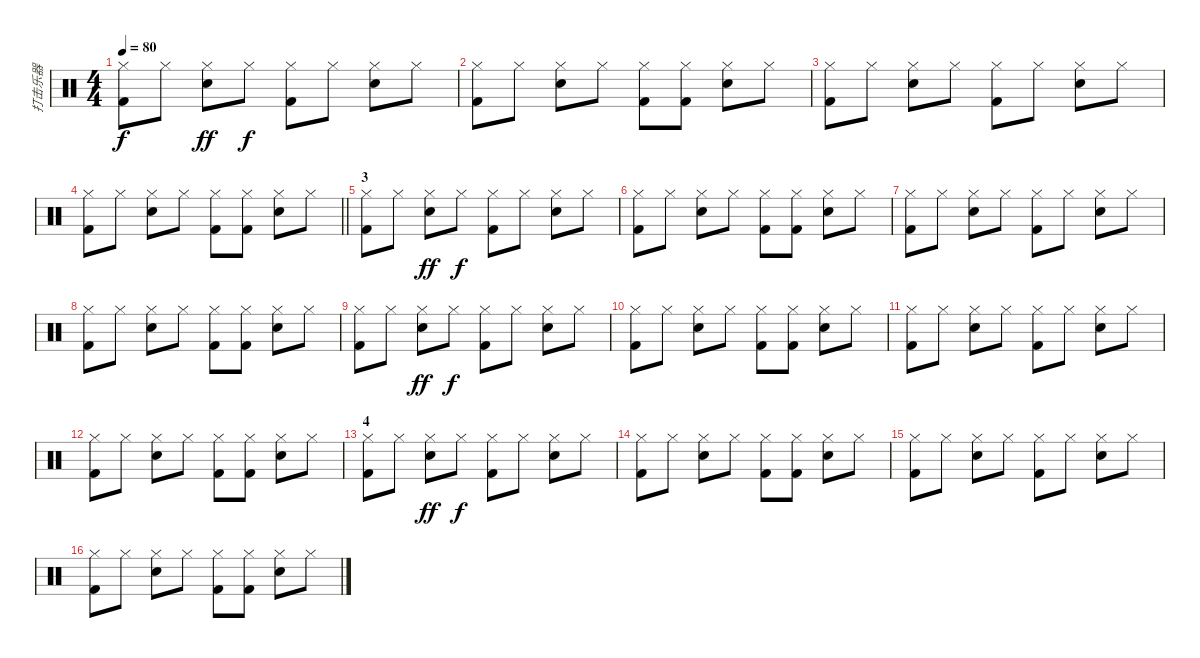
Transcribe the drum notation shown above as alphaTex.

\track ("打击乐器" "打击乐器") {instrument percussion}
\staff {score}
\articulation defaults
\ts (4 4)
\tempo 80
\clef neutral
\ks c
("Hi-Hat (closed)" "Kick (hit) 2").8{dy f} "Hi-Hat (closed)".8 ("Hi-Hat (closed)" "Snare (hit) 2").8{dy ff} "Hi-Hat (closed)".8{dy f} ("Hi-Hat (closed)" "Kick (hit) 2").8 "Hi-Hat (closed)".8 ("Hi-Hat (closed)" "Snare (hit) 2").8 "Hi-Hat (closed)".8 |
("Hi-Hat (closed)" "Kick (hit) 2").8 "Hi-Hat (closed)".8 ("Hi-Hat (closed)" "Snare (hit) 2").8 "Hi-Hat (closed)".8 ("Hi-Hat (closed)" "Kick (hit) 2").8 ("Hi-Hat (closed)" "Kick (hit) 2").8 ("Hi-Hat (closed)" "Snare (hit) 2").8 "Hi-Hat (closed)".8 |
("Hi-Hat (closed)" "Kick (hit) 2").8 "Hi-Hat (closed)".8 ("Hi-Hat (closed)" "Snare (hit) 2").8 "Hi-Hat (closed)".8 ("Hi-Hat (closed)" "Kick (hit) 2").8 "Hi-Hat (closed)".8 ("Hi-Hat (closed)" "Snare (hit) 2").8 "Hi-Hat (closed)".8 |
\barLineRight lightlight
("Hi-Hat (closed)" "Kick (hit) 2").8 "Hi-Hat (closed)".8 ("Hi-Hat (closed)" "Snare (hit) 2").8 "Hi-Hat (closed)".8 ("Hi-Hat (closed)" "Kick (hit) 2").8 ("Hi-Hat (closed)" "Kick (hit) 2").8 ("Hi-Hat (closed)" "Snare (hit) 2").8 "Hi-Hat (closed)".8 |
\section ("" "3")
("Hi-Hat (closed)" "Kick (hit) 2").8 "Hi-Hat (closed)".8 ("Hi-Hat (closed)" "Snare (hit) 2").8{dy ff} "Hi-Hat (closed)".8{dy f} ("Hi-Hat (closed)" "Kick (hit) 2").8 "Hi-Hat (closed)".8 ("Hi-Hat (closed)" "Snare (hit) 2").8 "Hi-Hat (closed)".8 |
("Hi-Hat (closed)" "Kick (hit) 2").8 "Hi-Hat (closed)".8 ("Hi-Hat (closed)" "Snare (hit) 2").8 "Hi-Hat (closed)".8 ("Hi-Hat (closed)" "Kick (hit) 2").8 ("Hi-Hat (closed)" "Kick (hit) 2").8 ("Hi-Hat (closed)" "Snare (hit) 2").8 "Hi-Hat (closed)".8 |
("Hi-Hat (closed)" "Kick (hit) 2").8 "Hi-Hat (closed)".8 ("Hi-Hat (closed)" "Snare (hit) 2").8 "Hi-Hat (closed)".8 ("Hi-Hat (closed)" "Kick (hit) 2").8 "Hi-Hat (closed)".8 ("Hi-Hat (closed)" "Snare (hit) 2").8 "Hi-Hat (closed)".8 |
("Hi-Hat (closed)" "Kick (hit) 2").8 "Hi-Hat (closed)".8 ("Hi-Hat (closed)" "Snare (hit) 2").8 "Hi-Hat (closed)".8 ("Hi-Hat (closed)" "Kick (hit) 2").8 ("Hi-Hat (closed)" "Kick (hit) 2").8 ("Hi-Hat (closed)" "Snare (hit) 2").8 "Hi-Hat (closed)".8 |
("Hi-Hat (closed)" "Kick (hit) 2").8 "Hi-Hat (closed)".8 ("Hi-Hat (closed)" "Snare (hit) 2").8{dy ff} "Hi-Hat (closed)".8{dy f} ("Hi-Hat (closed)" "Kick (hit) 2").8 "Hi-Hat (closed)".8 ("Hi-Hat (closed)" "Snare (hit) 2").8 "Hi-Hat (closed)".8 |
("Hi-Hat (closed)" "Kick (hit) 2").8 "Hi-Hat (closed)".8 ("Hi-Hat (closed)" "Snare (hit) 2").8 "Hi-Hat (closed)".8 ("Hi-Hat (closed)" "Kick (hit) 2").8 ("Hi-Hat (closed)" "Kick (hit) 2").8 ("Hi-Hat (closed)" "Snare (hit) 2").8 "Hi-Hat (closed)".8 |
("Hi-Hat (closed)" "Kick (hit) 2").8 "Hi-Hat (closed)".8 ("Hi-Hat (closed)" "Snare (hit) 2").8 "Hi-Hat (closed)".8 ("Hi-Hat (closed)" "Kick (hit) 2").8 "Hi-Hat (closed)".8 ("Hi-Hat (closed)" "Snare (hit) 2").8 "Hi-Hat (closed)".8 |
("Hi-Hat (closed)" "Kick (hit) 2").8 "Hi-Hat (closed)".8 ("Hi-Hat (closed)" "Snare (hit) 2").8 "Hi-Hat (closed)".8 ("Hi-Hat (closed)" "Kick (hit) 2").8 ("Hi-Hat (closed)" "Kick (hit) 2").8 ("Hi-Hat (closed)" "Snare (hit) 2").8 "Hi-Hat (closed)".8 |
\section ("" "4")
("Hi-Hat (closed)" "Kick (hit) 2").8 "Hi-Hat (closed)".8 ("Hi-Hat (closed)" "Snare (hit) 2").8{dy ff} "Hi-Hat (closed)".8{dy f} ("Hi-Hat (closed)" "Kick (hit) 2").8 "Hi-Hat (closed)".8 ("Hi-Hat (closed)" "Snare (hit) 2").8 "Hi-Hat (closed)".8 |
("Hi-Hat (closed)" "Kick (hit) 2").8 "Hi-Hat (closed)".8 ("Hi-Hat (closed)" "Snare (hit) 2").8 "Hi-Hat (closed)".8 ("Hi-Hat (closed)" "Kick (hit) 2").8 ("Hi-Hat (closed)" "Kick (hit) 2").8 ("Hi-Hat (closed)" "Snare (hit) 2").8 "Hi-Hat (closed)".8 |
("Hi-Hat (closed)" "Kick (hit) 2").8 "Hi-Hat (closed)".8 ("Hi-Hat (closed)" "Snare (hit) 2").8 "Hi-Hat (closed)".8 ("Hi-Hat (closed)" "Kick (hit) 2").8 "Hi-Hat (closed)".8 ("Hi-Hat (closed)" "Snare (hit) 2").8 "Hi-Hat (closed)".8 |
("Hi-Hat (closed)" "Kick (hit) 2").8 "Hi-Hat (closed)".8 ("Hi-Hat (closed)" "Snare (hit) 2").8 "Hi-Hat (closed)".8 ("Hi-Hat (closed)" "Kick (hit) 2").8 ("Hi-Hat (closed)" "Kick (hit) 2").8 ("Hi-Hat (closed)" "Snare (hit) 2").8 "Hi-Hat (closed)".8
